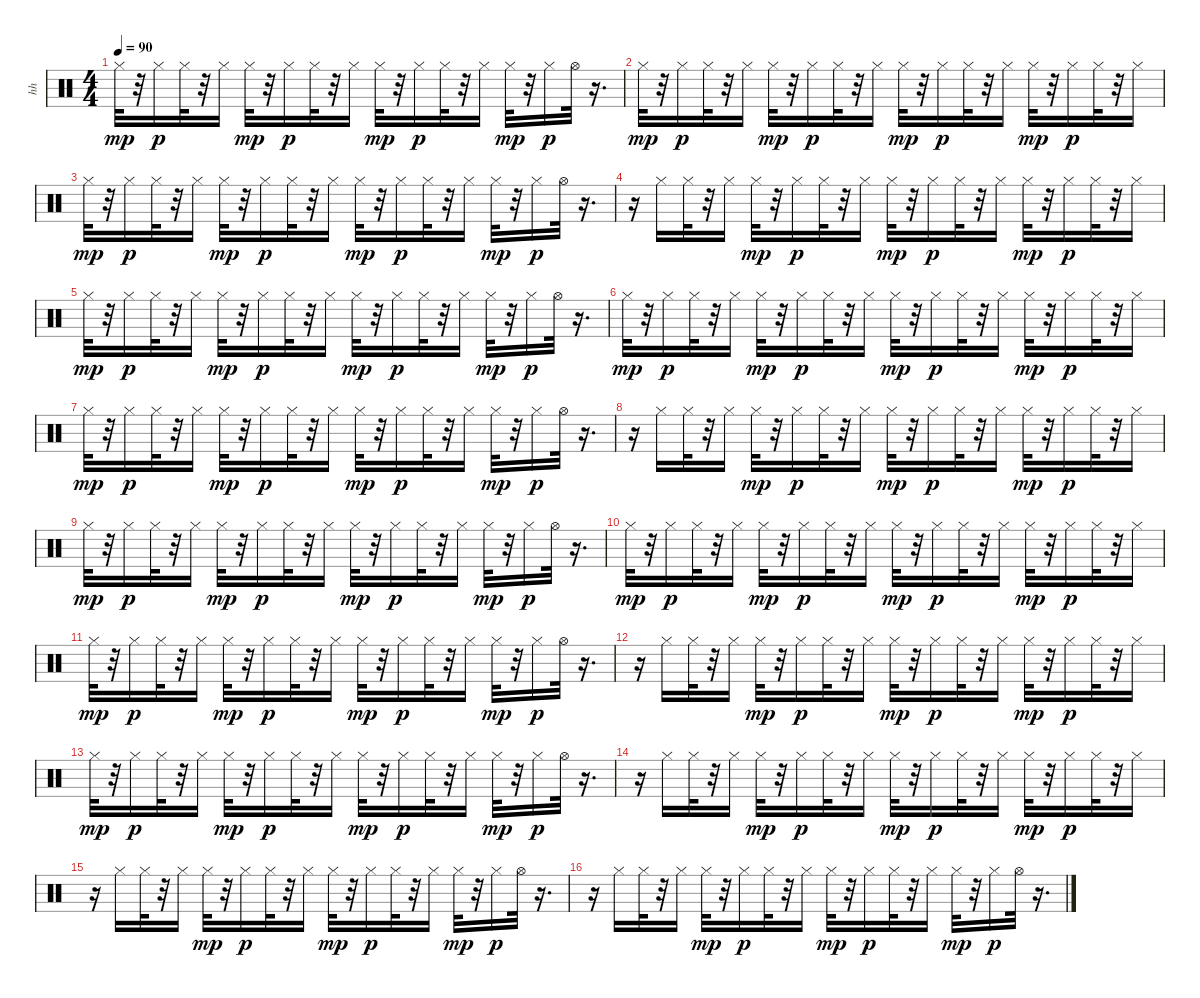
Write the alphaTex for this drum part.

\track ("hh" "hh") {instrument percussion}
\staff {score}
\articulation defaults
\ts (4 4)
\tempo 90
\clef neutral
\ks c "Hi-Hat (closed)".32{dy mp}
r.32 "Hi-Hat (closed)".16{dy p} "Hi-Hat (closed)".32 r.32 "Hi-Hat (closed)".16 "Hi-Hat (closed)".32{dy mp} r.32 "Hi-Hat (closed)".16{dy p} "Hi-Hat (closed)".32 r.32 "Hi-Hat (closed)".16 "Hi-Hat (closed)".32{dy mp} r.32 "Hi-Hat (closed)".16{dy p} "Hi-Hat (closed)".32 r.32 "Hi-Hat (closed)".16 "Hi-Hat (closed)".32{dy mp} r.32 "Hi-Hat (closed)".16{dy p} "Hi-Hat (open)".32 r.16{d} |
"Hi-Hat (closed)".32{dy mp} r.32 "Hi-Hat (closed)".16{dy p} "Hi-Hat (closed)".32 r.32 "Hi-Hat (closed)".16 "Hi-Hat (closed)".32{dy mp} r.32 "Hi-Hat (closed)".16{dy p} "Hi-Hat (closed)".32 r.32 "Hi-Hat (closed)".16 "Hi-Hat (closed)".32{dy mp} r.32 "Hi-Hat (closed)".16{dy p} "Hi-Hat (closed)".32 r.32 "Hi-Hat (closed)".16 "Hi-Hat (closed)".32{dy mp} r.32 "Hi-Hat (closed)".16{dy p} "Hi-Hat (closed)".32 r.32 "Hi-Hat (closed)".16 |
"Hi-Hat (closed)".32{dy mp} r.32 "Hi-Hat (closed)".16{dy p} "Hi-Hat (closed)".32 r.32 "Hi-Hat (closed)".16 "Hi-Hat (closed)".32{dy mp} r.32 "Hi-Hat (closed)".16{dy p} "Hi-Hat (closed)".32 r.32 "Hi-Hat (closed)".16 "Hi-Hat (closed)".32{dy mp} r.32 "Hi-Hat (closed)".16{dy p} "Hi-Hat (closed)".32 r.32 "Hi-Hat (closed)".16 "Hi-Hat (closed)".32{dy mp} r.32 "Hi-Hat (closed)".16{dy p} "Hi-Hat (open)".32 r.16{d} |
r.16 "Hi-Hat (closed)".16 "Hi-Hat (closed)".32 r.32 "Hi-Hat (closed)".16 "Hi-Hat (closed)".32{dy mp} r.32 "Hi-Hat (closed)".16{dy p} "Hi-Hat (closed)".32 r.32 "Hi-Hat (closed)".16 "Hi-Hat (closed)".32{dy mp} r.32 "Hi-Hat (closed)".16{dy p} "Hi-Hat (closed)".32 r.32 "Hi-Hat (closed)".16 "Hi-Hat (closed)".32{dy mp} r.32 "Hi-Hat (closed)".16{dy p} "Hi-Hat (closed)".32 r.32 "Hi-Hat (closed)".16 |
"Hi-Hat (closed)".32{dy mp} r.32 "Hi-Hat (closed)".16{dy p} "Hi-Hat (closed)".32 r.32 "Hi-Hat (closed)".16 "Hi-Hat (closed)".32{dy mp} r.32 "Hi-Hat (closed)".16{dy p} "Hi-Hat (closed)".32 r.32 "Hi-Hat (closed)".16 "Hi-Hat (closed)".32{dy mp} r.32 "Hi-Hat (closed)".16{dy p} "Hi-Hat (closed)".32 r.32 "Hi-Hat (closed)".16 "Hi-Hat (closed)".32{dy mp} r.32 "Hi-Hat (closed)".16{dy p} "Hi-Hat (open)".32 r.16{d} |
"Hi-Hat (closed)".32{dy mp} r.32 "Hi-Hat (closed)".16{dy p} "Hi-Hat (closed)".32 r.32 "Hi-Hat (closed)".16 "Hi-Hat (closed)".32{dy mp} r.32 "Hi-Hat (closed)".16{dy p} "Hi-Hat (closed)".32 r.32 "Hi-Hat (closed)".16 "Hi-Hat (closed)".32{dy mp} r.32 "Hi-Hat (closed)".16{dy p} "Hi-Hat (closed)".32 r.32 "Hi-Hat (closed)".16 "Hi-Hat (closed)".32{dy mp} r.32 "Hi-Hat (closed)".16{dy p} "Hi-Hat (closed)".32 r.32 "Hi-Hat (closed)".16 |
"Hi-Hat (closed)".32{dy mp} r.32 "Hi-Hat (closed)".16{dy p} "Hi-Hat (closed)".32 r.32 "Hi-Hat (closed)".16 "Hi-Hat (closed)".32{dy mp} r.32 "Hi-Hat (closed)".16{dy p} "Hi-Hat (closed)".32 r.32 "Hi-Hat (closed)".16 "Hi-Hat (closed)".32{dy mp} r.32 "Hi-Hat (closed)".16{dy p} "Hi-Hat (closed)".32 r.32 "Hi-Hat (closed)".16 "Hi-Hat (closed)".32{dy mp} r.32 "Hi-Hat (closed)".16{dy p} "Hi-Hat (open)".32 r.16{d} |
r.16 "Hi-Hat (closed)".16 "Hi-Hat (closed)".32 r.32 "Hi-Hat (closed)".16 "Hi-Hat (closed)".32{dy mp} r.32 "Hi-Hat (closed)".16{dy p} "Hi-Hat (closed)".32 r.32 "Hi-Hat (closed)".16 "Hi-Hat (closed)".32{dy mp} r.32 "Hi-Hat (closed)".16{dy p} "Hi-Hat (closed)".32 r.32 "Hi-Hat (closed)".16 "Hi-Hat (closed)".32{dy mp} r.32 "Hi-Hat (closed)".16{dy p} "Hi-Hat (closed)".32 r.32 "Hi-Hat (closed)".16 |
"Hi-Hat (closed)".32{dy mp} r.32 "Hi-Hat (closed)".16{dy p} "Hi-Hat (closed)".32 r.32 "Hi-Hat (closed)".16 "Hi-Hat (closed)".32{dy mp} r.32 "Hi-Hat (closed)".16{dy p} "Hi-Hat (closed)".32 r.32 "Hi-Hat (closed)".16 "Hi-Hat (closed)".32{dy mp} r.32 "Hi-Hat (closed)".16{dy p} "Hi-Hat (closed)".32 r.32 "Hi-Hat (closed)".16 "Hi-Hat (closed)".32{dy mp} r.32 "Hi-Hat (closed)".16{dy p} "Hi-Hat (open)".32 r.16{d} |
"Hi-Hat (closed)".32{dy mp} r.32 "Hi-Hat (closed)".16{dy p} "Hi-Hat (closed)".32 r.32 "Hi-Hat (closed)".16 "Hi-Hat (closed)".32{dy mp} r.32 "Hi-Hat (closed)".16{dy p} "Hi-Hat (closed)".32 r.32 "Hi-Hat (closed)".16 "Hi-Hat (closed)".32{dy mp} r.32 "Hi-Hat (closed)".16{dy p} "Hi-Hat (closed)".32 r.32 "Hi-Hat (closed)".16 "Hi-Hat (closed)".32{dy mp} r.32 "Hi-Hat (closed)".16{dy p} "Hi-Hat (closed)".32 r.32 "Hi-Hat (closed)".16 |
"Hi-Hat (closed)".32{dy mp} r.32 "Hi-Hat (closed)".16{dy p} "Hi-Hat (closed)".32 r.32 "Hi-Hat (closed)".16 "Hi-Hat (closed)".32{dy mp} r.32 "Hi-Hat (closed)".16{dy p} "Hi-Hat (closed)".32 r.32 "Hi-Hat (closed)".16 "Hi-Hat (closed)".32{dy mp} r.32 "Hi-Hat (closed)".16{dy p} "Hi-Hat (closed)".32 r.32 "Hi-Hat (closed)".16 "Hi-Hat (closed)".32{dy mp} r.32 "Hi-Hat (closed)".16{dy p} "Hi-Hat (open)".32 r.16{d} |
r.16 "Hi-Hat (closed)".16 "Hi-Hat (closed)".32 r.32 "Hi-Hat (closed)".16 "Hi-Hat (closed)".32{dy mp} r.32 "Hi-Hat (closed)".16{dy p} "Hi-Hat (closed)".32 r.32 "Hi-Hat (closed)".16 "Hi-Hat (closed)".32{dy mp} r.32 "Hi-Hat (closed)".16{dy p} "Hi-Hat (closed)".32 r.32 "Hi-Hat (closed)".16 "Hi-Hat (closed)".32{dy mp} r.32 "Hi-Hat (closed)".16{dy p} "Hi-Hat (closed)".32 r.32 "Hi-Hat (closed)".16 |
"Hi-Hat (closed)".32{dy mp} r.32 "Hi-Hat (closed)".16{dy p} "Hi-Hat (closed)".32 r.32 "Hi-Hat (closed)".16 "Hi-Hat (closed)".32{dy mp} r.32 "Hi-Hat (closed)".16{dy p} "Hi-Hat (closed)".32 r.32 "Hi-Hat (closed)".16 "Hi-Hat (closed)".32{dy mp} r.32 "Hi-Hat (closed)".16{dy p} "Hi-Hat (closed)".32 r.32 "Hi-Hat (closed)".16 "Hi-Hat (closed)".32{dy mp} r.32 "Hi-Hat (closed)".16{dy p} "Hi-Hat (open)".32 r.16{d} |
r.16 "Hi-Hat (closed)".16 "Hi-Hat (closed)".32 r.32 "Hi-Hat (closed)".16 "Hi-Hat (closed)".32{dy mp} r.32 "Hi-Hat (closed)".16{dy p} "Hi-Hat (closed)".32 r.32 "Hi-Hat (closed)".16 "Hi-Hat (closed)".32{dy mp} r.32 "Hi-Hat (closed)".16{dy p} "Hi-Hat (closed)".32 r.32 "Hi-Hat (closed)".16 "Hi-Hat (closed)".32{dy mp} r.32 "Hi-Hat (closed)".16{dy p} "Hi-Hat (closed)".32 r.32 "Hi-Hat (closed)".16 |
r.16 "Hi-Hat (closed)".16 "Hi-Hat (closed)".32 r.32 "Hi-Hat (closed)".16 "Hi-Hat (closed)".32{dy mp} r.32 "Hi-Hat (closed)".16{dy p} "Hi-Hat (closed)".32 r.32 "Hi-Hat (closed)".16 "Hi-Hat (closed)".32{dy mp} r.32 "Hi-Hat (closed)".16{dy p} "Hi-Hat (closed)".32 r.32 "Hi-Hat (closed)".16 "Hi-Hat (closed)".32{dy mp} r.32 "Hi-Hat (closed)".16{dy p} "Hi-Hat (open)".32 r.16{d} |
r.16 "Hi-Hat (closed)".16 "Hi-Hat (closed)".32 r.32 "Hi-Hat (closed)".16 "Hi-Hat (closed)".32{dy mp} r.32 "Hi-Hat (closed)".16{dy p} "Hi-Hat (closed)".32 r.32 "Hi-Hat (closed)".16 "Hi-Hat (closed)".32{dy mp} r.32 "Hi-Hat (closed)".16{dy p} "Hi-Hat (closed)".32 r.32 "Hi-Hat (closed)".16 "Hi-Hat (closed)".32{dy mp} r.32 "Hi-Hat (closed)".16{dy p} "Hi-Hat (open)".32 r.16{d}
